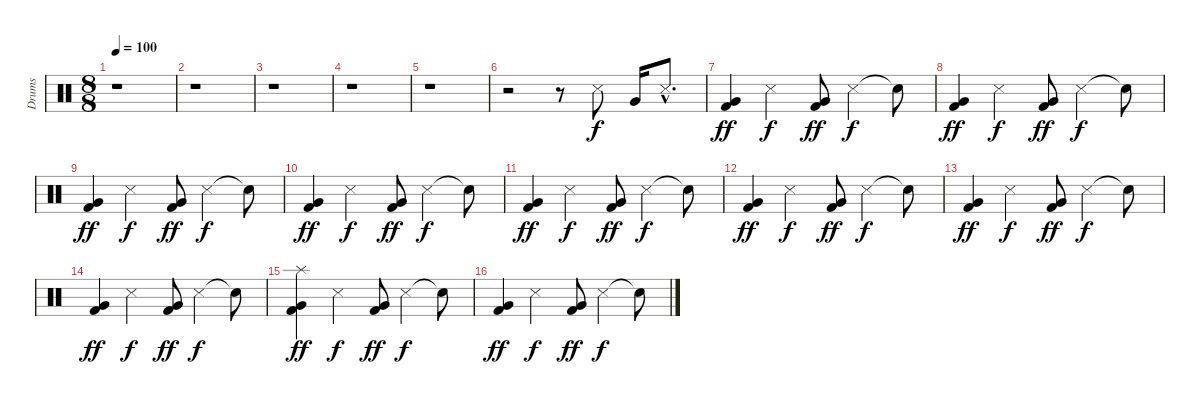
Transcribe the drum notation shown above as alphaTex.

\track ("Drums" "Drums") {instrument percussion}
\staff {score}
\articulation defaults
\ts (8 8)
\tempo 100
\clef neutral
\ks c
r.1{dy f} |
r.1 |
r.1 |
r.1 |
r.1 |
r.2 r.8 "Snare (side stick) 3".8 "Very Low Tom (hit)".16 "Metronome (hit)"{hac}.8{d} |
("Kick (hit) 2" "Very Low Tom (hit)").4{dy ff} "Snare (side stick) 3".4{dy f} ("Kick (hit) 2" "Very Low Tom (hit)").8{dy ff} "Snare (side stick) 3".4{dy f} "Snare (hit)"{t}.8 |
("Kick (hit) 2" "Very Low Tom (hit)").4{dy ff} "Snare (side stick) 3".4{dy f} ("Kick (hit) 2" "Very Low Tom (hit)").8{dy ff} "Snare (side stick) 3".4{dy f} "Snare (hit)"{t}.8 |
("Kick (hit) 2" "Very Low Tom (hit)").4{dy ff} "Snare (side stick) 3".4{dy f} ("Kick (hit) 2" "Very Low Tom (hit)").8{dy ff} "Snare (side stick) 3".4{dy f} "Snare (hit)"{t}.8 |
("Kick (hit) 2" "Very Low Tom (hit)").4{dy ff} "Snare (side stick) 3".4{dy f} ("Kick (hit) 2" "Very Low Tom (hit)").8{dy ff} "Snare (side stick) 3".4{dy f} "Snare (hit)"{t}.8 |
("Kick (hit) 2" "Very Low Tom (hit)").4{dy ff} "Snare (side stick) 3".4{dy f} ("Kick (hit) 2" "Very Low Tom (hit)").8{dy ff} "Snare (side stick) 3".4{dy f} "Snare (hit)"{t}.8 |
("Kick (hit) 2" "Very Low Tom (hit)").4{dy ff} "Snare (side stick) 3".4{dy f} ("Kick (hit) 2" "Very Low Tom (hit)").8{dy ff} "Snare (side stick) 3".4{dy f} "Snare (hit)"{t}.8 |
("Kick (hit) 2" "Very Low Tom (hit)").4{dy ff} "Snare (side stick) 3".4{dy f} ("Kick (hit) 2" "Very Low Tom (hit)").8{dy ff} "Snare (side stick) 3".4{dy f} "Snare (hit)"{t}.8 |
("Kick (hit) 2" "Very Low Tom (hit)").4{dy ff} "Snare (side stick) 3".4{dy f} ("Kick (hit) 2" "Very Low Tom (hit)").8{dy ff} "Snare (side stick) 3".4{dy f} "Snare (hit)"{t}.8 |
("Splash (hit)" "Kick (hit) 2" "Very Low Tom (hit)").4{dy ff} "Snare (side stick) 3".4{dy f} ("Kick (hit) 2" "Very Low Tom (hit)").8{dy ff} "Snare (side stick) 3".4{dy f} "Snare (hit)"{t}.8 |
("Kick (hit) 2" "Very Low Tom (hit)").4{dy ff} "Snare (side stick) 3".4{dy f} ("Kick (hit) 2" "Very Low Tom (hit)").8{dy ff} "Snare (side stick) 3".4{dy f} "Snare (hit)"{t}.8
